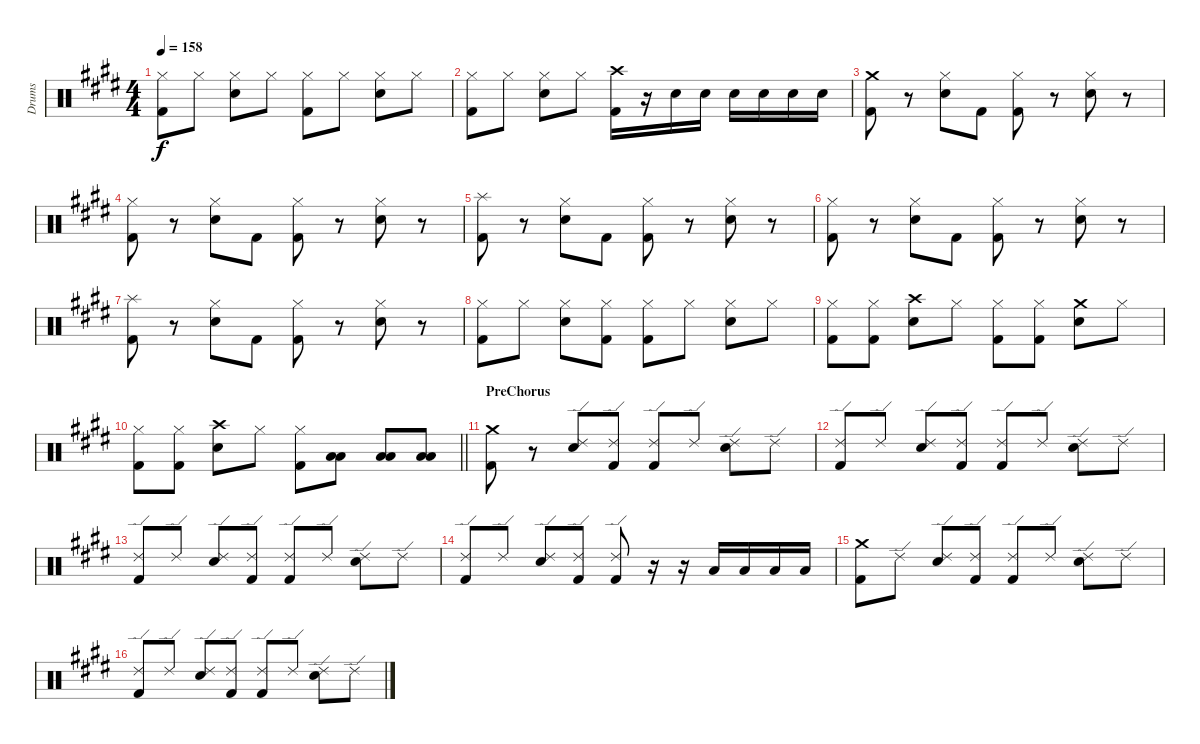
\track ("Drums" "Drums") {instrument percussion}
\staff {score}
\articulation defaults
\ts (4 4)
\tempo 158
\clef neutral
\ks c#minor
("Hi-Hat (closed)" "Kick (hit) 2").8{dy f} "Hi-Hat (closed)".8 ("Hi-Hat (closed)" "Snare (hit) 2").8 "Hi-Hat (closed)".8 ("Hi-Hat (closed)" "Kick (hit) 2").8 "Hi-Hat (closed)".8 ("Hi-Hat (closed)" "Snare (hit) 2").8 "Hi-Hat (closed)".8 |
("Hi-Hat (closed)" "Kick (hit) 2").8 "Hi-Hat (closed)".8 ("Hi-Hat (closed)" "Snare (hit) 2").8 "Hi-Hat (closed)".8 ("Crash high (hit)" "Kick (hit) 2").16 r.16 "Snare (hit) 2".16 "Snare (hit) 2".16 "Snare (hit) 2".16 "Snare (hit) 2".16 "Snare (hit) 2".16 "Snare (hit) 2".16 |
\ks e
("Crash medium (hit)" "Kick (hit) 2").8 r.8 ("Hi-Hat (closed)" "Snare (hit) 2").8 "Kick (hit) 2".8 ("Hi-Hat (closed)" "Kick (hit) 2").8 r.8 ("Hi-Hat (closed)" "Snare (hit) 2").8 r.8 |
\ks c#minor
("Hi-Hat (closed)" "Kick (hit) 2").8 r.8 ("Hi-Hat (closed)" "Snare (hit) 2").8 "Kick (hit) 2".8 ("Hi-Hat (closed)" "Kick (hit) 2").8 r.8 ("Hi-Hat (closed)" "Snare (hit) 2").8 r.8 |
\ks e
("Splash (hit)" "Kick (hit) 2").8 r.8 ("Hi-Hat (closed)" "Snare (hit) 2").8 "Kick (hit) 2".8 ("Hi-Hat (closed)" "Kick (hit) 2").8 r.8 ("Hi-Hat (closed)" "Snare (hit) 2").8 r.8 |
\ks c#minor
("Hi-Hat (closed)" "Kick (hit) 2").8 r.8 ("Hi-Hat (closed)" "Snare (hit) 2").8 "Kick (hit) 2".8 ("Hi-Hat (closed)" "Kick (hit) 2").8 r.8 ("Hi-Hat (closed)" "Snare (hit) 2").8 r.8 |
\ks e
("Splash (hit)" "Kick (hit) 2").8 r.8 ("Hi-Hat (closed)" "Snare (hit) 2").8 "Kick (hit) 2".8 ("Hi-Hat (closed)" "Kick (hit) 2").8 r.8 ("Hi-Hat (closed)" "Snare (hit) 2").8 r.8 |
\ks c#minor
("Hi-Hat (closed)" "Kick (hit) 2").8 "Hi-Hat (closed)".8 ("Hi-Hat (closed)" "Snare (hit) 2").8 ("Hi-Hat (closed)" "Kick (hit) 2").8 ("Hi-Hat (closed)" "Kick (hit) 2").8 "Hi-Hat (closed)".8 ("Hi-Hat (closed)" "Snare (hit) 2").8 "Hi-Hat (closed)".8 |
\ks e
("Hi-Hat (closed)" "Kick (hit) 2").8 ("Hi-Hat (closed)" "Kick (hit) 2").8 ("Crash high (hit)" "Snare (hit) 2").8 "Hi-Hat (closed)".8 ("Hi-Hat (closed)" "Kick (hit) 2").8 ("Hi-Hat (closed)" "Kick (hit) 2").8 ("Crash medium (hit)" "Snare (hit) 2").8 "Hi-Hat (closed)".8 |
\barLineRight lightlight
\ks c#minor
("Hi-Hat (closed)" "Kick (hit) 2").8 ("Hi-Hat (closed)" "Kick (hit) 2").8 ("Crash high (hit)" "Snare (hit) 2").8 "Hi-Hat (closed)".8 ("Hi-Hat (closed)" "Kick (hit) 2").8 ("Low Tom (hit)" "Low Floor Tom (hit)").8 ("Low Tom (hit)" "Low Floor Tom (hit)").8 ("Low Tom (hit)" "Low Floor Tom (hit)").8 |
\section ("" "PreChorus")
\ks e
("Crash medium (hit)" "Kick (hit) 2").8 r.8 ("Ride (edge) 2" "Snare (hit) 2").8 ("Ride (edge) 2" "Kick (hit) 2").8 ("Ride (edge) 2" "Kick (hit) 2").8 "Ride (edge) 2".8 ("Ride (edge) 2" "Snare (hit) 2").8 "Ride (edge) 2".8 |
\ks c#minor
("Ride (edge) 2" "Kick (hit) 2").8 "Ride (edge) 2".8 ("Ride (edge) 2" "Snare (hit) 2").8 ("Ride (edge) 2" "Kick (hit) 2").8 ("Ride (edge) 2" "Kick (hit) 2").8 "Ride (edge) 2".8 ("Ride (edge) 2" "Snare (hit) 2").8 "Ride (edge) 2".8 |
("Ride (edge) 2" "Kick (hit) 2").8 "Ride (edge) 2".8 ("Ride (edge) 2" "Snare (hit) 2").8 ("Ride (edge) 2" "Kick (hit) 2").8 ("Ride (edge) 2" "Kick (hit) 2").8 "Ride (edge) 2".8 ("Ride (edge) 2" "Snare (hit) 2").8 "Ride (edge) 2".8 |
("Ride (edge) 2" "Kick (hit) 2").8 "Ride (edge) 2".8 ("Ride (edge) 2" "Snare (hit) 2").8 ("Ride (edge) 2" "Kick (hit) 2").8 ("Ride (edge) 2" "Kick (hit) 2").8 r.16 r.16 "Low Tom (hit)".16 "Low Tom (hit)".16 "Low Floor Tom (hit)".16 "Low Tom (hit)".16 |
\ks e
("Crash medium (hit)" "Kick (hit) 2").8 "Ride (edge) 2".8 ("Ride (edge) 2" "Snare (hit) 2").8 ("Ride (edge) 2" "Kick (hit) 2").8 ("Ride (edge) 2" "Kick (hit) 2").8 "Ride (edge) 2".8 ("Ride (edge) 2" "Snare (hit) 2").8 "Ride (edge) 2".8 |
\ks c#minor
("Ride (edge) 2" "Kick (hit) 2").8 "Ride (edge) 2".8 ("Ride (edge) 2" "Snare (hit) 2").8 ("Ride (edge) 2" "Kick (hit) 2").8 ("Ride (edge) 2" "Kick (hit) 2").8 "Ride (edge) 2".8 ("Ride (edge) 2" "Snare (hit) 2").8 "Ride (edge) 2".8
